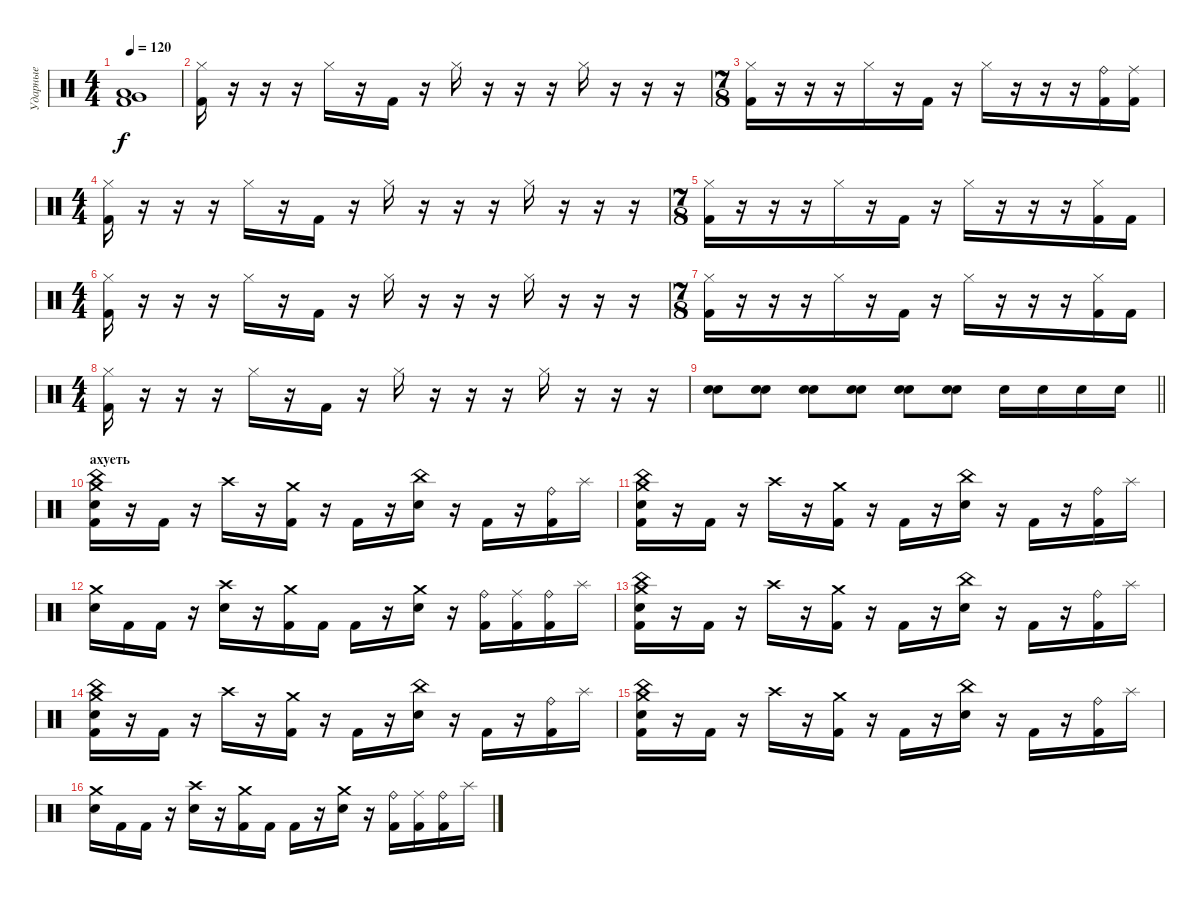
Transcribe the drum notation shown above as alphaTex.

\track ("Ударные" "Ударные") {instrument percussion}
\staff {score}
\articulation defaults
\ts (4 4)
\tempo 120
\clef neutral
\ks c
("Very Low Tom (hit)" "Low Tom (hit)" "Kick (hit) 2").1{dy f} |
("Hi-Hat (closed)" "Kick (hit) 2").16 r.16 r.16 r.16 "Hi-Hat (closed)".16 r.16 "Kick (hit) 2".16 r.16 "Hi-Hat (closed)".16 r.16 r.16 r.16 "Hi-Hat (closed)".16 r.16 r.16 r.16 |
\ts (7 8)
("Hi-Hat (closed)" "Kick (hit) 2").16 r.16 r.16 r.16 "Hi-Hat (closed)".16 r.16 "Kick (hit) 2".16 r.16 "Hi-Hat (closed)".16 r.16 r.16 r.16 ("Ride (bell)" "Kick (hit) 2").16 ("Ride (middle)" "Kick (hit) 2").16 |
\ts (4 4)
("Hi-Hat (closed)" "Kick (hit) 2").16 r.16 r.16 r.16 "Hi-Hat (closed)".16 r.16 "Kick (hit) 2".16 r.16 "Hi-Hat (closed)".16 r.16 r.16 r.16 "Hi-Hat (closed)".16 r.16 r.16 r.16 |
\ts (7 8)
("Hi-Hat (closed)" "Kick (hit) 2").16 r.16 r.16 r.16 "Hi-Hat (closed)".16 r.16 "Kick (hit) 2".16 r.16 "Hi-Hat (closed)".16 r.16 r.16 r.16 ("Hi-Hat (closed)" "Kick (hit) 2").16 "Kick (hit) 2".16 |
\ts (4 4)
("Hi-Hat (closed)" "Kick (hit) 2").16 r.16 r.16 r.16 "Hi-Hat (closed)".16 r.16 "Kick (hit) 2".16 r.16 "Hi-Hat (closed)".16 r.16 r.16 r.16 "Hi-Hat (closed)".16 r.16 r.16 r.16 |
\ts (7 8)
("Hi-Hat (closed)" "Kick (hit) 2").16 r.16 r.16 r.16 "Hi-Hat (closed)".16 r.16 "Kick (hit) 2".16 r.16 "Hi-Hat (closed)".16 r.16 r.16 r.16 ("Hi-Hat (closed)" "Kick (hit) 2").16 "Kick (hit) 2".16 |
\ts (4 4)
("Hi-Hat (closed)" "Kick (hit) 2").16 r.16 r.16 r.16 "Hi-Hat (closed)".16 r.16 "Kick (hit) 2".16 r.16 "Hi-Hat (closed)".16 r.16 r.16 r.16 "Hi-Hat (closed)".16 r.16 r.16 r.16 |
\barLineRight lightlight
("Electric Snare (hit)" "Electric Snare (hit)").8 ("Electric Snare (hit)" "Electric Snare (hit)").8 ("Electric Snare (hit)" "Electric Snare (hit)").8 ("Electric Snare (hit)" "Electric Snare (hit)").8 ("Electric Snare (hit)" "Electric Snare (hit)").8 ("Electric Snare (hit)" "Electric Snare (hit)").8 "Electric Snare (hit)".16 "Electric Snare (hit)".16 "Electric Snare (hit)".16 "Electric Snare (hit)".16 |
\section ("" "ахуеть")
("Crash medium (hit)" "China (hit)" "Electric Snare (hit)" "Kick (hit) 2").16 r.16 "Kick (hit) 2".16 r.16 "Crash high (hit)".16 r.16 ("Crash medium (hit)" "Kick (hit) 2").16 r.16 "Kick (hit) 2".16 r.16 ("China (hit)" "Electric Snare (hit)").16 r.16 "Kick (hit) 2".16 r.16 ("Ride (bell)" "Kick (hit) 2").16 "Splash (hit)".16 |
("Crash medium (hit)" "China (hit)" "Electric Snare (hit)" "Kick (hit) 2").16 r.16 "Kick (hit) 2".16 r.16 "Crash high (hit)".16 r.16 ("Crash medium (hit)" "Kick (hit) 2").16 r.16 "Kick (hit) 2".16 r.16 ("China (hit)" "Electric Snare (hit)").16 r.16 "Kick (hit) 2".16 r.16 ("Ride (bell)" "Kick (hit) 2").16 "Splash (hit)".16 |
("Crash medium (hit)" "Electric Snare (hit)").16 "Kick (hit) 2".16 "Kick (hit) 2".16 r.16 ("Crash high (hit)" "Electric Snare (hit)").16 r.16 ("Crash medium (hit)" "Kick (hit) 2").16 "Kick (hit) 2".16 "Kick (hit) 2".16 r.16 ("Crash medium (hit)" "Electric Snare (hit)").16 r.16 ("Ride (bell)" "Kick (hit) 2").16 ("Ride (middle)" "Kick (hit) 2").16 ("Ride (bell)" "Kick (hit) 2").16 "Splash (hit)".16 |
("Crash medium (hit)" "China (hit)" "Electric Snare (hit)" "Kick (hit) 2").16 r.16 "Kick (hit) 2".16 r.16 "Crash high (hit)".16 r.16 ("Crash medium (hit)" "Kick (hit) 2").16 r.16 "Kick (hit) 2".16 r.16 ("China (hit)" "Electric Snare (hit)").16 r.16 "Kick (hit) 2".16 r.16 ("Ride (bell)" "Kick (hit) 2").16 "Splash (hit)".16 |
("Crash medium (hit)" "China (hit)" "Electric Snare (hit)" "Kick (hit) 2").16 r.16 "Kick (hit) 2".16 r.16 "Crash high (hit)".16 r.16 ("Crash medium (hit)" "Kick (hit) 2").16 r.16 "Kick (hit) 2".16 r.16 ("China (hit)" "Electric Snare (hit)").16 r.16 "Kick (hit) 2".16 r.16 ("Ride (bell)" "Kick (hit) 2").16 "Splash (hit)".16 |
("Crash medium (hit)" "China (hit)" "Electric Snare (hit)" "Kick (hit) 2").16 r.16 "Kick (hit) 2".16 r.16 "Crash high (hit)".16 r.16 ("Crash medium (hit)" "Kick (hit) 2").16 r.16 "Kick (hit) 2".16 r.16 ("China (hit)" "Electric Snare (hit)").16 r.16 "Kick (hit) 2".16 r.16 ("Ride (bell)" "Kick (hit) 2").16 "Splash (hit)".16 |
("Crash medium (hit)" "Electric Snare (hit)").16 "Kick (hit) 2".16 "Kick (hit) 2".16 r.16 ("Crash high (hit)" "Electric Snare (hit)").16 r.16 ("Crash medium (hit)" "Kick (hit) 2").16 "Kick (hit) 2".16 "Kick (hit) 2".16 r.16 ("Crash medium (hit)" "Electric Snare (hit)").16 r.16 ("Ride (bell)" "Kick (hit) 2").16 ("Ride (middle)" "Kick (hit) 2").16 ("Ride (bell)" "Kick (hit) 2").16 "Splash (hit)".16
